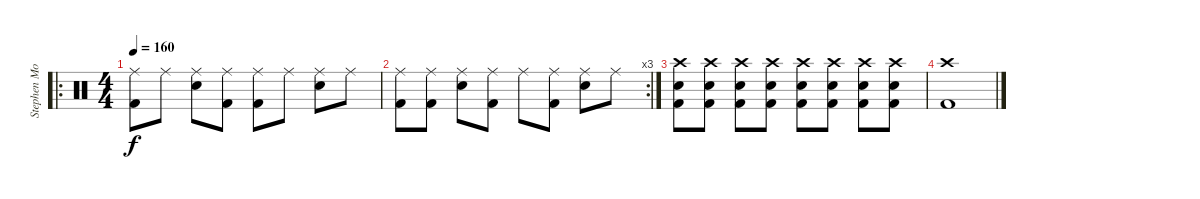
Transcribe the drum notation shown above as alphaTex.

\track ("Stephen Morris - Drums" "Stephen Mo") {instrument percussion}
\staff {score}
\articulation defaults
\ro
\ts (4 4)
\tempo 160
\clef neutral
\ks c
("Ride (middle)" "Kick (hit) 2").8{dy f} "Ride (middle)".8 ("Ride (middle)" "Snare (hit) 2").8 ("Ride (middle)" "Kick (hit) 2").8 ("Ride (middle)" "Kick (hit) 2").8 "Ride (middle)".8 ("Ride (middle)" "Snare (hit) 2").8 "Ride (middle)".8 |
\rc 3
("Ride (middle)" "Kick (hit) 2").8 ("Ride (middle)" "Kick (hit) 2").8 ("Ride (middle)" "Snare (hit) 2").8 ("Ride (middle)" "Kick (hit) 2").8 "Ride (middle)".8 ("Ride (middle)" "Kick (hit) 2").8 ("Ride (middle)" "Snare (hit) 2").8 "Ride (middle)".8 |
("Crash high (hit)" "Snare (hit) 2" "Kick (hit) 2").8 ("Crash high (hit)" "Snare (hit) 2" "Kick (hit) 2").8 ("Crash high (hit)" "Snare (hit) 2" "Kick (hit) 2").8 ("Crash high (hit)" "Snare (hit) 2" "Kick (hit) 2").8 ("Crash high (hit)" "Snare (hit) 2" "Kick (hit) 2").8 ("Crash high (hit)" "Snare (hit) 2" "Kick (hit) 2").8 ("Crash high (hit)" "Snare (hit) 2" "Kick (hit) 2").8 ("Crash high (hit)" "Snare (hit) 2" "Kick (hit) 2").8 |
("Crash high (hit)" "Kick (hit) 2").1
